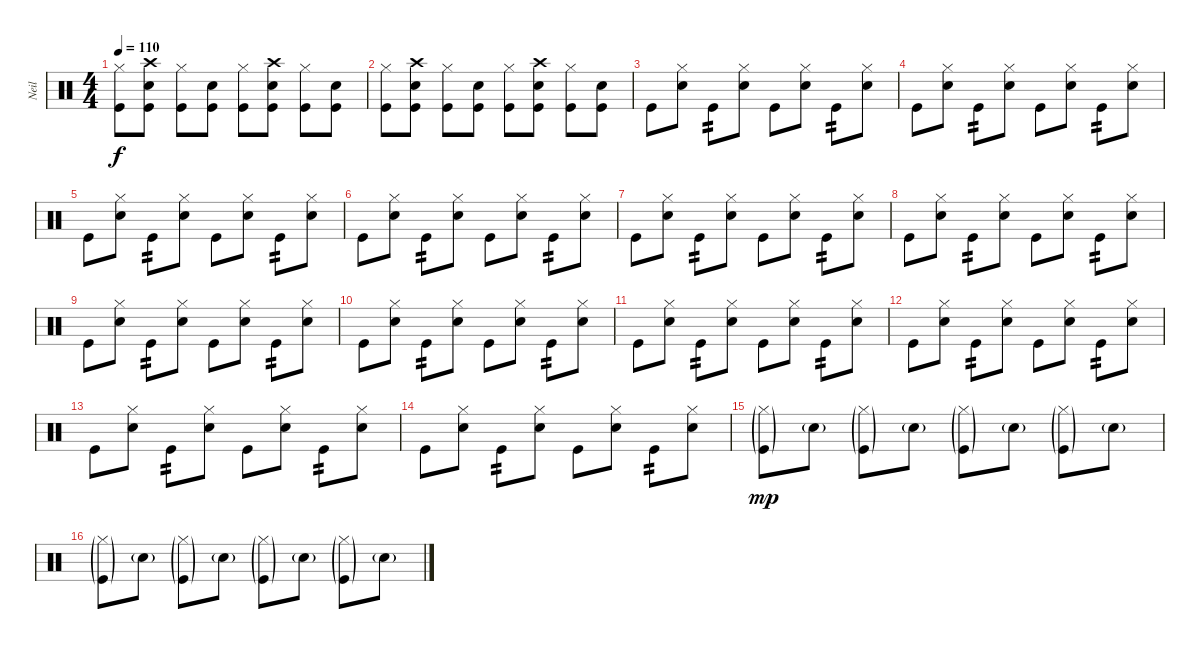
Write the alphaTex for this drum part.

\track ("Neil" "Neil") {instrument percussion}
\staff {score}
\articulation defaults
\ts (4 4)
\tempo 110
\clef neutral
\ks c
("Hi-Hat (closed)" "Kick (hit)").8{dy f} ("Crash high (hit)" "Snare (hit) 2" "Kick (hit)").8 ("Hi-Hat (closed)" "Kick (hit)").8 ("Snare (hit) 2" "Kick (hit)").8 ("Hi-Hat (closed)" "Kick (hit)").8 ("Crash high (hit)" "Snare (hit) 2" "Kick (hit)").8 ("Hi-Hat (closed)" "Kick (hit)").8 ("Snare (hit) 2" "Kick (hit)").8 |
("Hi-Hat (closed)" "Kick (hit)").8 ("Crash high (hit)" "Snare (hit) 2" "Kick (hit)").8 ("Hi-Hat (closed)" "Kick (hit)").8 ("Snare (hit) 2" "Kick (hit)").8 ("Hi-Hat (closed)" "Kick (hit)").8 ("Crash high (hit)" "Snare (hit) 2" "Kick (hit)").8 ("Hi-Hat (closed)" "Kick (hit)").8 ("Snare (hit) 2" "Kick (hit)").8 |
"Kick (hit)".8 ("Hi-Hat (closed)" "Snare (hit) 2").8 "Kick (hit)".8{tp 2} ("Hi-Hat (closed)" "Snare (hit) 2").8 "Kick (hit)".8 ("Hi-Hat (closed)" "Snare (hit) 2").8 "Kick (hit)".8{tp 2} ("Hi-Hat (closed)" "Snare (hit) 2").8 |
"Kick (hit)".8 ("Hi-Hat (closed)" "Snare (hit) 2").8 "Kick (hit)".8{tp 2} ("Hi-Hat (closed)" "Snare (hit) 2").8 "Kick (hit)".8 ("Hi-Hat (closed)" "Snare (hit) 2").8 "Kick (hit)".8{tp 2} ("Hi-Hat (closed)" "Snare (hit) 2").8 |
"Kick (hit)".8 ("Hi-Hat (closed)" "Snare (hit) 2").8 "Kick (hit)".8{tp 2} ("Hi-Hat (closed)" "Snare (hit) 2").8 "Kick (hit)".8 ("Hi-Hat (closed)" "Snare (hit) 2").8 "Kick (hit)".8{tp 2} ("Hi-Hat (closed)" "Snare (hit) 2").8 |
"Kick (hit)".8 ("Hi-Hat (closed)" "Snare (hit) 2").8 "Kick (hit)".8{tp 2} ("Hi-Hat (closed)" "Snare (hit) 2").8 "Kick (hit)".8 ("Hi-Hat (closed)" "Snare (hit) 2").8 "Kick (hit)".8{tp 2} ("Hi-Hat (closed)" "Snare (hit) 2").8 |
"Kick (hit)".8 ("Hi-Hat (closed)" "Snare (hit) 2").8 "Kick (hit)".8{tp 2} ("Hi-Hat (closed)" "Snare (hit) 2").8 "Kick (hit)".8 ("Hi-Hat (closed)" "Snare (hit) 2").8 "Kick (hit)".8{tp 2} ("Hi-Hat (closed)" "Snare (hit) 2").8 |
"Kick (hit)".8 ("Hi-Hat (closed)" "Snare (hit) 2").8 "Kick (hit)".8{tp 2} ("Hi-Hat (closed)" "Snare (hit) 2").8 "Kick (hit)".8 ("Hi-Hat (closed)" "Snare (hit) 2").8 "Kick (hit)".8{tp 2} ("Hi-Hat (closed)" "Snare (hit) 2").8 |
"Kick (hit)".8 ("Hi-Hat (closed)" "Snare (hit) 2").8 "Kick (hit)".8{tp 2} ("Hi-Hat (closed)" "Snare (hit) 2").8 "Kick (hit)".8 ("Hi-Hat (closed)" "Snare (hit) 2").8 "Kick (hit)".8{tp 2} ("Hi-Hat (closed)" "Snare (hit) 2").8 |
"Kick (hit)".8 ("Hi-Hat (closed)" "Snare (hit) 2").8 "Kick (hit)".8{tp 2} ("Hi-Hat (closed)" "Snare (hit) 2").8 "Kick (hit)".8 ("Hi-Hat (closed)" "Snare (hit) 2").8 "Kick (hit)".8{tp 2} ("Hi-Hat (closed)" "Snare (hit) 2").8 |
"Kick (hit)".8 ("Hi-Hat (closed)" "Snare (hit) 2").8 "Kick (hit)".8{tp 2} ("Hi-Hat (closed)" "Snare (hit) 2").8 "Kick (hit)".8 ("Hi-Hat (closed)" "Snare (hit) 2").8 "Kick (hit)".8{tp 2} ("Hi-Hat (closed)" "Snare (hit) 2").8 |
"Kick (hit)".8 ("Hi-Hat (closed)" "Snare (hit) 2").8 "Kick (hit)".8{tp 2} ("Hi-Hat (closed)" "Snare (hit) 2").8 "Kick (hit)".8 ("Hi-Hat (closed)" "Snare (hit) 2").8 "Kick (hit)".8{tp 2} ("Hi-Hat (closed)" "Snare (hit) 2").8 |
"Kick (hit)".8 ("Hi-Hat (closed)" "Snare (hit) 2").8 "Kick (hit)".8{tp 2} ("Hi-Hat (closed)" "Snare (hit) 2").8 "Kick (hit)".8 ("Hi-Hat (closed)" "Snare (hit) 2").8 "Kick (hit)".8{tp 2} ("Hi-Hat (closed)" "Snare (hit) 2").8 |
"Kick (hit)".8 ("Hi-Hat (closed)" "Snare (hit) 2").8 "Kick (hit)".8{tp 2} ("Hi-Hat (closed)" "Snare (hit) 2").8 "Kick (hit)".8 ("Hi-Hat (closed)" "Snare (hit) 2").8 "Kick (hit)".8{tp 2} ("Hi-Hat (closed)" "Snare (hit) 2").8 |
("Hi-Hat (closed)"{g} "Kick (hit)"{g}).8{dy mp} "Snare (hit) 2"{g}.8 ("Hi-Hat (closed)"{g} "Kick (hit)"{g}).8 "Snare (hit) 2"{g}.8 ("Hi-Hat (closed)"{g} "Kick (hit)"{g}).8 "Snare (hit) 2"{g}.8 ("Hi-Hat (closed)"{g} "Kick (hit)"{g}).8 "Snare (hit) 2"{g}.8 |
("Hi-Hat (closed)"{g} "Kick (hit)"{g}).8 "Snare (hit) 2"{g}.8 ("Hi-Hat (closed)"{g} "Kick (hit)"{g}).8 "Snare (hit) 2"{g}.8 ("Hi-Hat (closed)"{g} "Kick (hit)"{g}).8 "Snare (hit) 2"{g}.8 ("Hi-Hat (closed)"{g} "Kick (hit)"{g}).8 "Snare (hit) 2"{g}.8
